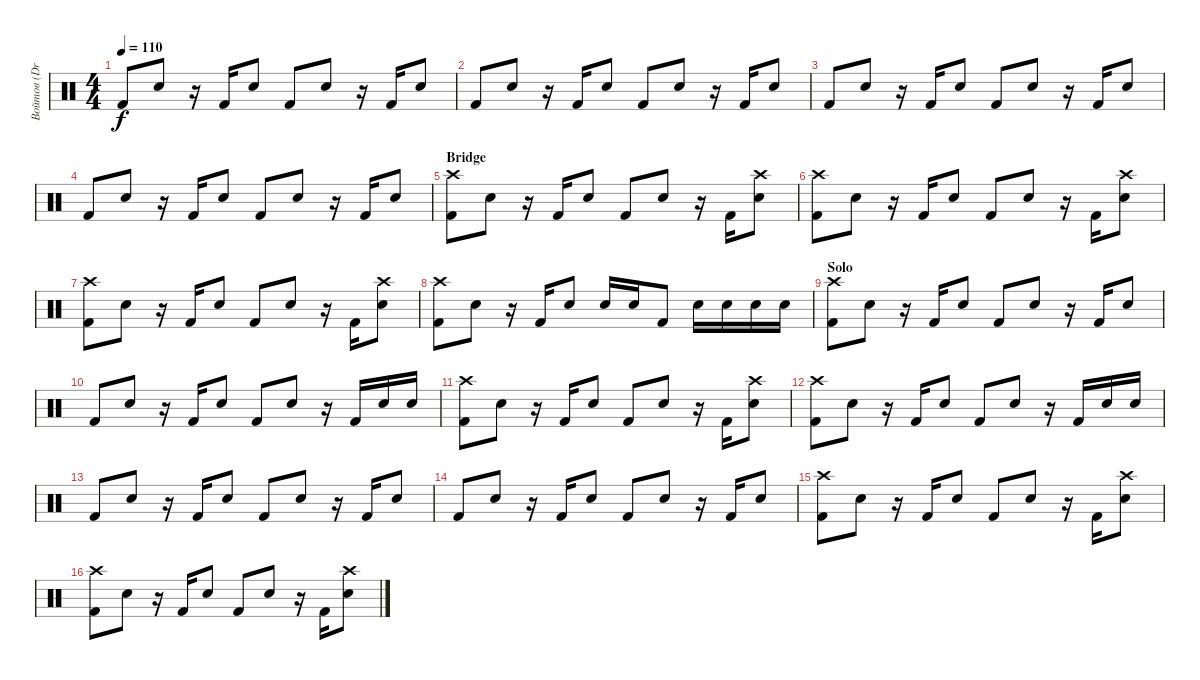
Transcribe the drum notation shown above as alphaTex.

\track ("Войтов (Drums)" "Войтов (Dr") {instrument percussion}
\staff {score}
\articulation defaults
\ts (4 4)
\tempo 110
\clef neutral
\ks c "Kick (hit) 2".8{dy f} "Electric Snare (hit)".8
r.16 "Kick (hit) 2".16 "Electric Snare (hit)".8 "Kick (hit) 2".8 "Electric Snare (hit)".8 r.16 "Kick (hit) 2".16 "Electric Snare (hit)".8 |
"Kick (hit) 2".8 "Electric Snare (hit)".8 r.16 "Kick (hit) 2".16 "Electric Snare (hit)".8 "Kick (hit) 2".8 "Electric Snare (hit)".8 r.16 "Kick (hit) 2".16 "Electric Snare (hit)".8 |
"Kick (hit) 2".8 "Electric Snare (hit)".8 r.16 "Kick (hit) 2".16 "Electric Snare (hit)".8 "Kick (hit) 2".8 "Electric Snare (hit)".8 r.16 "Kick (hit) 2".16 "Electric Snare (hit)".8 |
"Kick (hit) 2".8 "Electric Snare (hit)".8 r.16 "Kick (hit) 2".16 "Electric Snare (hit)".8 "Kick (hit) 2".8 "Electric Snare (hit)".8 r.16 "Kick (hit) 2".16 "Electric Snare (hit)".8 |
\section ("" "Bridge")
("Kick (hit) 2" "Crash high (hit)").8 "Electric Snare (hit)".8 r.16 "Kick (hit) 2".16 "Electric Snare (hit)".8 "Kick (hit) 2".8 "Electric Snare (hit)".8 r.16 "Kick (hit) 2".16 ("Electric Snare (hit)" "Crash high (hit)").8 |
("Kick (hit) 2" "Crash high (hit)").8 "Electric Snare (hit)".8 r.16 "Kick (hit) 2".16 "Electric Snare (hit)".8 "Kick (hit) 2".8 "Electric Snare (hit)".8 r.16 "Kick (hit) 2".16 ("Electric Snare (hit)" "Crash high (hit)").8 |
("Kick (hit) 2" "Crash high (hit)").8 "Electric Snare (hit)".8 r.16 "Kick (hit) 2".16 "Electric Snare (hit)".8 "Kick (hit) 2".8 "Electric Snare (hit)".8 r.16 "Kick (hit) 2".16 ("Electric Snare (hit)" "Crash high (hit)").8 |
("Kick (hit) 2" "Crash high (hit)").8 "Electric Snare (hit)".8 r.16 "Kick (hit) 2".16 "Electric Snare (hit)".8 "Electric Snare (hit)".16 "Electric Snare (hit)".16 "Kick (hit) 2".8 "Electric Snare (hit)".16 "Electric Snare (hit)".16 "Electric Snare (hit)".16 "Electric Snare (hit)".16 |
\section ("" "Solo")
("Kick (hit) 2" "Crash high (hit)").8 "Electric Snare (hit)".8 r.16 "Kick (hit) 2".16 "Electric Snare (hit)".8 "Kick (hit) 2".8 "Electric Snare (hit)".8 r.16 "Kick (hit) 2".16 "Electric Snare (hit)".8 |
"Kick (hit) 2".8 "Electric Snare (hit)".8 r.16 "Kick (hit) 2".16 "Electric Snare (hit)".8 "Kick (hit) 2".8 "Electric Snare (hit)".8 r.16 "Kick (hit) 2".16 "Electric Snare (hit)".16 "Electric Snare (hit)".16 |
("Kick (hit) 2" "Crash high (hit)").8 "Electric Snare (hit)".8 r.16 "Kick (hit) 2".16 "Electric Snare (hit)".8 "Kick (hit) 2".8 "Electric Snare (hit)".8 r.16 "Kick (hit) 2".16 ("Electric Snare (hit)" "Crash high (hit)").8 |
("Kick (hit) 2" "Crash high (hit)").8 "Electric Snare (hit)".8 r.16 "Kick (hit) 2".16 "Electric Snare (hit)".8 "Kick (hit) 2".8 "Electric Snare (hit)".8 r.16 "Kick (hit) 2".16 "Electric Snare (hit)".16 "Electric Snare (hit)".16 |
"Kick (hit) 2".8 "Electric Snare (hit)".8 r.16 "Kick (hit) 2".16 "Electric Snare (hit)".8 "Kick (hit) 2".8 "Electric Snare (hit)".8 r.16 "Kick (hit) 2".16 "Electric Snare (hit)".8 |
"Kick (hit) 2".8 "Electric Snare (hit)".8 r.16 "Kick (hit) 2".16 "Electric Snare (hit)".8 "Kick (hit) 2".8 "Electric Snare (hit)".8 r.16 "Kick (hit) 2".16 "Electric Snare (hit)".8 |
("Kick (hit) 2" "Crash high (hit)").8 "Electric Snare (hit)".8 r.16 "Kick (hit) 2".16 "Electric Snare (hit)".8 "Kick (hit) 2".8 "Electric Snare (hit)".8 r.16 "Kick (hit) 2".16 ("Electric Snare (hit)" "Crash high (hit)").8 |
("Kick (hit) 2" "Crash high (hit)").8 "Electric Snare (hit)".8 r.16 "Kick (hit) 2".16 "Electric Snare (hit)".8 "Kick (hit) 2".8 "Electric Snare (hit)".8 r.16 "Kick (hit) 2".16 ("Electric Snare (hit)" "Crash high (hit)").8
